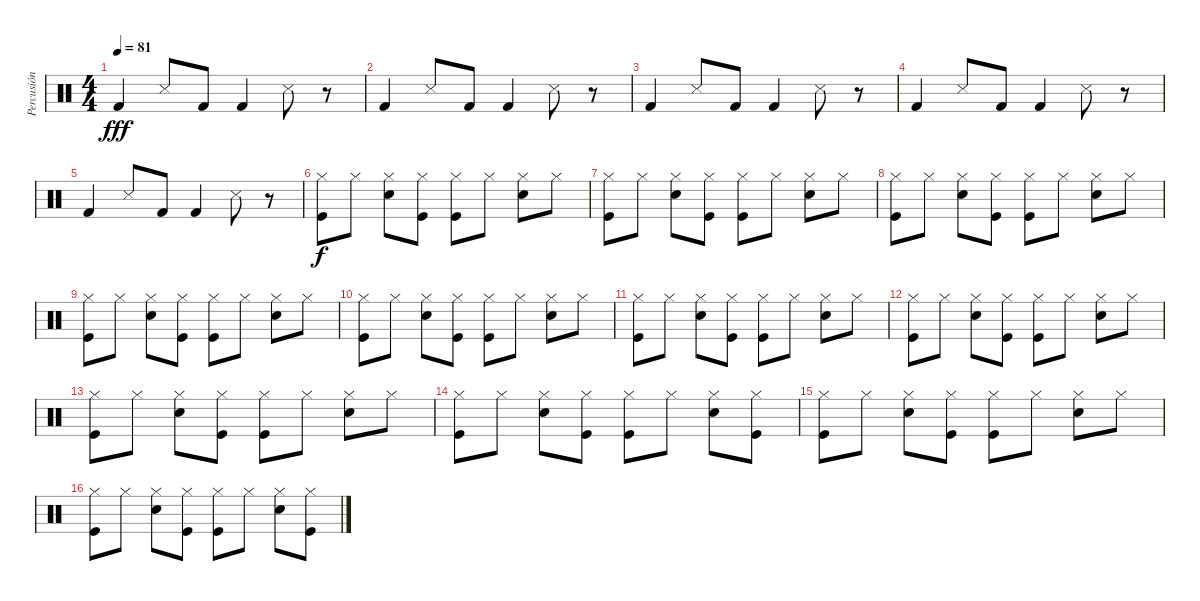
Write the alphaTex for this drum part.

\track ("Percusión" "Percusión") {instrument percussion}
\staff {score}
\articulation defaults
\ts (4 4)
\tempo 81
\clef neutral
\ks c "Kick (hit) 2".4{dy fff} "Snare (side stick) 3".8 "Kick (hit) 2".8 "Kick (hit) 2".4 "Snare (side stick) 3".8
r.8 |
"Kick (hit) 2".4 "Snare (side stick) 3".8 "Kick (hit) 2".8 "Kick (hit) 2".4 "Snare (side stick) 3".8 r.8 |
"Kick (hit) 2".4 "Snare (side stick) 3".8 "Kick (hit) 2".8 "Kick (hit) 2".4 "Snare (side stick) 3".8 r.8 |
"Kick (hit) 2".4 "Snare (side stick) 3".8 "Kick (hit) 2".8 "Kick (hit) 2".4 "Snare (side stick) 3".8 r.8 |
"Kick (hit) 2".4 "Snare (side stick) 3".8 "Kick (hit) 2".8 "Kick (hit) 2".4 "Snare (side stick) 3".8 r.8 |
("Hi-Hat (closed)" "Kick (hit)").8{dy f} "Hi-Hat (closed)".8 ("Hi-Hat (closed)" "Electric Snare (hit)").8 ("Hi-Hat (closed)" "Kick (hit)").8 ("Hi-Hat (closed)" "Kick (hit)").8 "Hi-Hat (closed)".8 ("Hi-Hat (closed)" "Electric Snare (hit)").8 "Hi-Hat (closed)".8 |
("Hi-Hat (closed)" "Kick (hit)").8 "Hi-Hat (closed)".8 ("Hi-Hat (closed)" "Electric Snare (hit)").8 ("Hi-Hat (closed)" "Kick (hit)").8 ("Hi-Hat (closed)" "Kick (hit)").8 "Hi-Hat (closed)".8 ("Hi-Hat (closed)" "Electric Snare (hit)").8 "Hi-Hat (closed)".8 |
("Hi-Hat (closed)" "Kick (hit)").8 "Hi-Hat (closed)".8 ("Hi-Hat (closed)" "Electric Snare (hit)").8 ("Hi-Hat (closed)" "Kick (hit)").8 ("Hi-Hat (closed)" "Kick (hit)").8 "Hi-Hat (closed)".8 ("Hi-Hat (closed)" "Electric Snare (hit)").8 "Hi-Hat (closed)".8 |
("Hi-Hat (closed)" "Kick (hit)").8 "Hi-Hat (closed)".8 ("Hi-Hat (closed)" "Electric Snare (hit)").8 ("Hi-Hat (closed)" "Kick (hit)").8 ("Hi-Hat (closed)" "Kick (hit)").8 "Hi-Hat (closed)".8 ("Hi-Hat (closed)" "Electric Snare (hit)").8 "Hi-Hat (closed)".8 |
("Hi-Hat (closed)" "Kick (hit)").8 "Hi-Hat (closed)".8 ("Hi-Hat (closed)" "Electric Snare (hit)").8 ("Hi-Hat (closed)" "Kick (hit)").8 ("Hi-Hat (closed)" "Kick (hit)").8 "Hi-Hat (closed)".8 ("Hi-Hat (closed)" "Electric Snare (hit)").8 "Hi-Hat (closed)".8 |
("Hi-Hat (closed)" "Kick (hit)").8 "Hi-Hat (closed)".8 ("Hi-Hat (closed)" "Electric Snare (hit)").8 ("Hi-Hat (closed)" "Kick (hit)").8 ("Hi-Hat (closed)" "Kick (hit)").8 "Hi-Hat (closed)".8 ("Hi-Hat (closed)" "Electric Snare (hit)").8 "Hi-Hat (closed)".8 |
("Hi-Hat (closed)" "Kick (hit)").8 "Hi-Hat (closed)".8 ("Hi-Hat (closed)" "Electric Snare (hit)").8 ("Hi-Hat (closed)" "Kick (hit)").8 ("Hi-Hat (closed)" "Kick (hit)").8 "Hi-Hat (closed)".8 ("Hi-Hat (closed)" "Electric Snare (hit)").8 "Hi-Hat (closed)".8 |
("Hi-Hat (closed)" "Kick (hit)").8 "Hi-Hat (closed)".8 ("Hi-Hat (closed)" "Electric Snare (hit)").8 ("Hi-Hat (closed)" "Kick (hit)").8 ("Hi-Hat (closed)" "Kick (hit)").8 "Hi-Hat (closed)".8 ("Hi-Hat (closed)" "Electric Snare (hit)").8 "Hi-Hat (closed)".8 |
("Hi-Hat (closed)" "Kick (hit)").8 "Hi-Hat (closed)".8 ("Hi-Hat (closed)" "Electric Snare (hit)").8 ("Hi-Hat (closed)" "Kick (hit)").8 ("Hi-Hat (closed)" "Kick (hit)").8 "Hi-Hat (closed)".8 ("Hi-Hat (closed)" "Electric Snare (hit)").8 ("Hi-Hat (closed)" "Kick (hit)").8 |
("Hi-Hat (closed)" "Kick (hit)").8 "Hi-Hat (closed)".8 ("Hi-Hat (closed)" "Electric Snare (hit)").8 ("Hi-Hat (closed)" "Kick (hit)").8 ("Hi-Hat (closed)" "Kick (hit)").8 "Hi-Hat (closed)".8 ("Hi-Hat (closed)" "Electric Snare (hit)").8 "Hi-Hat (closed)".8 |
("Hi-Hat (closed)" "Kick (hit)").8 "Hi-Hat (closed)".8 ("Hi-Hat (closed)" "Electric Snare (hit)").8 ("Hi-Hat (closed)" "Kick (hit)").8 ("Hi-Hat (closed)" "Kick (hit)").8 "Hi-Hat (closed)".8 ("Hi-Hat (closed)" "Electric Snare (hit)").8 ("Hi-Hat (closed)" "Kick (hit)").8
